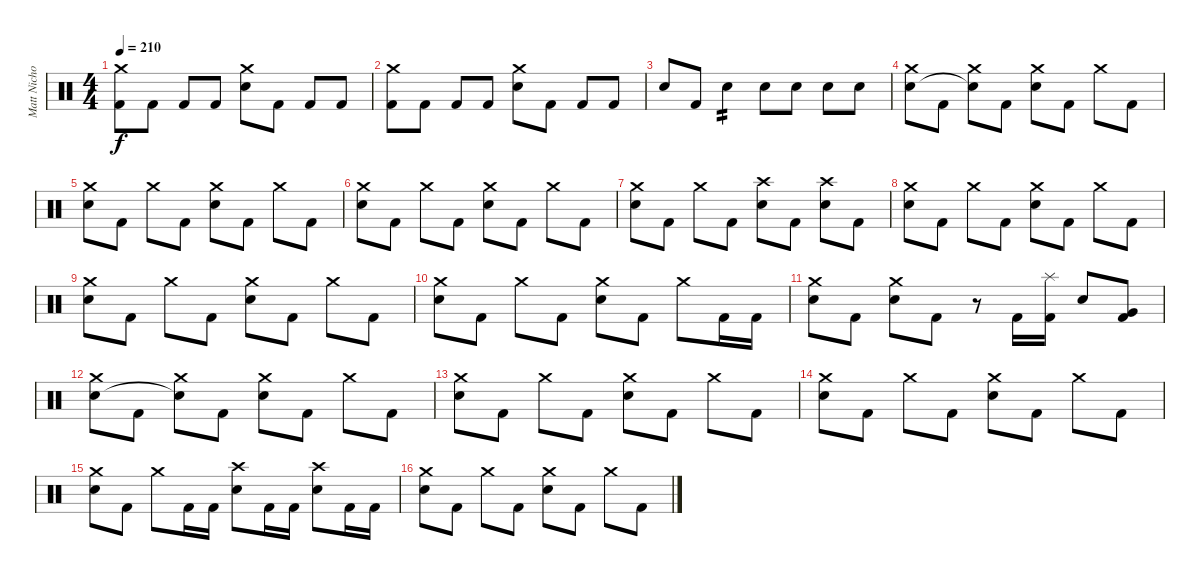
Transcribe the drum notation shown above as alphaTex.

\track ("Matt Nichols" "Matt Nicho") {instrument percussion}
\staff {score}
\articulation defaults
\ts (4 4)
\tempo 210
\clef neutral
\ks c
("Crash medium (hit)" "Kick (hit) 2").8{dy f} "Kick (hit) 2".8 "Kick (hit) 2".8 "Kick (hit) 2".8 ("Crash medium (hit)" "Electric Snare (hit)").8 "Kick (hit) 2".8 "Kick (hit) 2".8 "Kick (hit) 2".8 |
("Crash medium (hit)" "Kick (hit) 2").8 "Kick (hit) 2".8 "Kick (hit) 2".8 "Kick (hit) 2".8 ("Crash medium (hit)" "Electric Snare (hit)").8 "Kick (hit) 2".8 "Kick (hit) 2".8 "Kick (hit) 2".8 |
"Electric Snare (hit)".8 "Kick (hit) 2".8 "Electric Snare (hit)".4{tp 2} "Electric Snare (hit)".8 "Electric Snare (hit)".8 "Electric Snare (hit)".8 "Electric Snare (hit)".8 |
("Crash medium (hit)" "Electric Snare (hit)").8 "Kick (hit) 2".8 ("Crash medium (hit)" "Snare (hit)"{t}).8 "Kick (hit) 2".8 ("Crash medium (hit)" "Electric Snare (hit)").8 "Kick (hit) 2".8 "Crash medium (hit)".8 "Kick (hit) 2".8 |
("Crash medium (hit)" "Electric Snare (hit)").8 "Kick (hit) 2".8 "Crash medium (hit)".8 "Kick (hit) 2".8 ("Crash medium (hit)" "Electric Snare (hit)").8 "Kick (hit) 2".8 "Crash medium (hit)".8 "Kick (hit) 2".8 |
("Crash medium (hit)" "Electric Snare (hit)").8 "Kick (hit) 2".8 "Crash medium (hit)".8 "Kick (hit) 2".8 ("Crash medium (hit)" "Electric Snare (hit)").8 "Kick (hit) 2".8 "Crash medium (hit)".8 "Kick (hit) 2".8 |
("Crash medium (hit)" "Electric Snare (hit)").8 "Kick (hit) 2".8 "Crash medium (hit)".8 "Kick (hit) 2".8 ("Crash high (hit)" "Electric Snare (hit)").8 "Kick (hit) 2".8 ("Crash high (hit)" "Electric Snare (hit)").8 "Kick (hit) 2".8 |
("Crash medium (hit)" "Electric Snare (hit)").8 "Kick (hit) 2".8 "Crash medium (hit)".8 "Kick (hit) 2".8 ("Crash medium (hit)" "Electric Snare (hit)").8 "Kick (hit) 2".8 "Crash medium (hit)".8 "Kick (hit) 2".8 |
("Crash medium (hit)" "Electric Snare (hit)").8 "Kick (hit) 2".8 "Crash medium (hit)".8 "Kick (hit) 2".8 ("Crash medium (hit)" "Electric Snare (hit)").8 "Kick (hit) 2".8 "Crash medium (hit)".8 "Kick (hit) 2".8 |
("Crash medium (hit)" "Electric Snare (hit)").8 "Kick (hit) 2".8 "Crash medium (hit)".8 "Kick (hit) 2".8 ("Crash medium (hit)" "Electric Snare (hit)").8 "Kick (hit) 2".8 "Crash medium (hit)".8 "Kick (hit) 2".16 "Kick (hit) 2".16 |
("Crash medium (hit)" "Electric Snare (hit)").8 "Kick (hit) 2".8 ("Crash medium (hit)" "Electric Snare (hit)").8 "Kick (hit) 2".8 r.8 "Kick (hit) 2".16 ("Splash (hit)" "Kick (hit) 2").16 "Electric Snare (hit)".8 ("Very Low Tom (hit)" "Kick (hit) 2").8 |
("Crash medium (hit)" "Electric Snare (hit)").8 "Kick (hit) 2".8 ("Crash medium (hit)" "Snare (hit)"{t}).8 "Kick (hit) 2".8 ("Crash medium (hit)" "Electric Snare (hit)").8 "Kick (hit) 2".8 "Crash medium (hit)".8 "Kick (hit) 2".8 |
("Crash medium (hit)" "Electric Snare (hit)").8 "Kick (hit) 2".8 "Crash medium (hit)".8 "Kick (hit) 2".8 ("Crash medium (hit)" "Electric Snare (hit)").8 "Kick (hit) 2".8 "Crash medium (hit)".8 "Kick (hit) 2".8 |
("Crash medium (hit)" "Electric Snare (hit)").8 "Kick (hit) 2".8 "Crash medium (hit)".8 "Kick (hit) 2".8 ("Crash medium (hit)" "Electric Snare (hit)").8 "Kick (hit) 2".8 "Crash medium (hit)".8 "Kick (hit) 2".8 |
("Crash medium (hit)" "Electric Snare (hit)").8 "Kick (hit) 2".8 "Crash medium (hit)".8 "Kick (hit) 2".16 "Kick (hit) 2".16 ("Crash high (hit)" "Electric Snare (hit)").8 "Kick (hit) 2".16 "Kick (hit) 2".16 ("Crash high (hit)" "Electric Snare (hit)").8 "Kick (hit) 2".16 "Kick (hit) 2".16 |
("Crash medium (hit)" "Electric Snare (hit)").8 "Kick (hit) 2".8 "Crash medium (hit)".8 "Kick (hit) 2".8 ("Crash medium (hit)" "Electric Snare (hit)").8 "Kick (hit) 2".8 "Crash medium (hit)".8 "Kick (hit) 2".8
